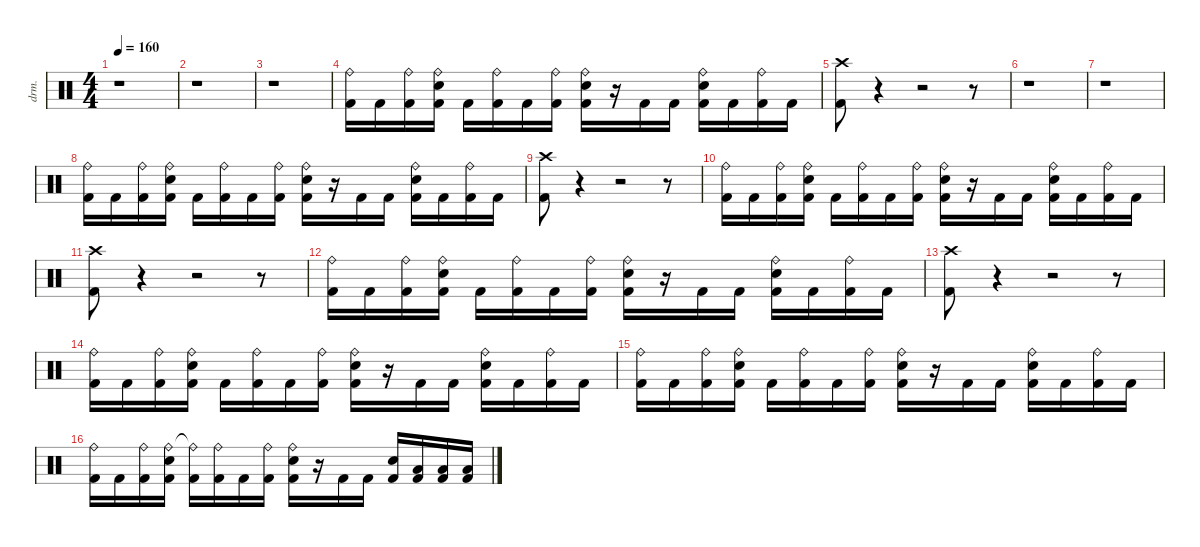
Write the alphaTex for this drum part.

\defaultSystemsLayout 4
\hideDynamics
\bracketExtendMode nobrackets
\track ("Menza" "drm.") {instrument percussion}
\staff {score}
\articulation defaults
\ts (4 4)
\beaming (8 2 2 2 2)
\tempo 160
\clef neutral
\ks c
r.1{dy f} |
r.1 |
r.1 |
("Ride (bell)" "Kick (hit) 2").16 "Kick (hit) 2".16 ("Ride (bell)" "Kick (hit) 2").16 ("Ride (bell)" "Snare (hit) 2" "Kick (hit) 2").16 "Kick (hit) 2".16 ("Ride (bell)" "Kick (hit) 2").16 "Kick (hit) 2".16 ("Ride (bell)" "Kick (hit) 2").16 ("Ride (bell)" "Snare (hit) 2" "Kick (hit) 2").16 r.16 "Kick (hit) 2".16 "Kick (hit) 2".16 ("Ride (bell)" "Snare (hit) 2" "Kick (hit) 2").16 "Kick (hit) 2".16 ("Ride (bell)" "Kick (hit) 2").16 "Kick (hit) 2".16 |
("Crash high (hit)" "Kick (hit) 2").8 r.4 r.2 r.8 |
r.1 |
r.1 |
("Ride (bell)" "Kick (hit) 2").16 "Kick (hit) 2".16 ("Ride (bell)" "Kick (hit) 2").16 ("Ride (bell)" "Snare (hit) 2" "Kick (hit) 2").16 "Kick (hit) 2".16 ("Ride (bell)" "Kick (hit) 2").16 "Kick (hit) 2".16 ("Ride (bell)" "Kick (hit) 2").16 ("Ride (bell)" "Snare (hit) 2" "Kick (hit) 2").16 r.16 "Kick (hit) 2".16 "Kick (hit) 2".16 ("Ride (bell)" "Snare (hit) 2" "Kick (hit) 2").16 "Kick (hit) 2".16 ("Ride (bell)" "Kick (hit) 2").16 "Kick (hit) 2".16 |
("Crash high (hit)" "Kick (hit) 2").8 r.4 r.2 r.8 |
("Ride (bell)" "Kick (hit) 2").16 "Kick (hit) 2".16 ("Ride (bell)" "Kick (hit) 2").16 ("Ride (bell)" "Snare (hit) 2" "Kick (hit) 2").16 "Kick (hit) 2".16 ("Ride (bell)" "Kick (hit) 2").16 "Kick (hit) 2".16 ("Ride (bell)" "Kick (hit) 2").16 ("Ride (bell)" "Snare (hit) 2" "Kick (hit) 2").16 r.16 "Kick (hit) 2".16 "Kick (hit) 2".16 ("Ride (bell)" "Snare (hit) 2" "Kick (hit) 2").16 "Kick (hit) 2".16 ("Ride (bell)" "Kick (hit) 2").16 "Kick (hit) 2".16 |
("Crash high (hit)" "Kick (hit) 2").8 r.4 r.2 r.8 |
("Ride (bell)" "Kick (hit) 2").16 "Kick (hit) 2".16 ("Ride (bell)" "Kick (hit) 2").16 ("Ride (bell)" "Snare (hit) 2" "Kick (hit) 2").16 "Kick (hit) 2".16 ("Ride (bell)" "Kick (hit) 2").16 "Kick (hit) 2".16 ("Ride (bell)" "Kick (hit) 2").16 ("Ride (bell)" "Snare (hit) 2" "Kick (hit) 2").16 r.16 "Kick (hit) 2".16 "Kick (hit) 2".16 ("Ride (bell)" "Snare (hit) 2" "Kick (hit) 2").16 "Kick (hit) 2".16 ("Ride (bell)" "Kick (hit) 2").16 "Kick (hit) 2".16 |
("Crash high (hit)" "Kick (hit) 2").8 r.4 r.2 r.8 |
("Ride (bell)" "Kick (hit) 2").16 "Kick (hit) 2".16 ("Ride (bell)" "Kick (hit) 2").16 ("Ride (bell)" "Snare (hit) 2" "Kick (hit) 2").16 "Kick (hit) 2".16 ("Ride (bell)" "Kick (hit) 2").16 "Kick (hit) 2".16 ("Ride (bell)" "Kick (hit) 2").16 ("Ride (bell)" "Snare (hit) 2" "Kick (hit) 2").16 r.16 "Kick (hit) 2".16 "Kick (hit) 2".16 ("Ride (bell)" "Snare (hit) 2" "Kick (hit) 2").16 "Kick (hit) 2".16 ("Ride (bell)" "Kick (hit) 2").16 "Kick (hit) 2".16 |
("Ride (bell)" "Kick (hit) 2").16 "Kick (hit) 2".16 ("Ride (bell)" "Kick (hit) 2").16 ("Ride (bell)" "Snare (hit) 2" "Kick (hit) 2").16 "Kick (hit) 2".16 ("Ride (bell)" "Kick (hit) 2").16 "Kick (hit) 2".16 ("Ride (bell)" "Kick (hit) 2").16 ("Ride (bell)" "Snare (hit) 2" "Kick (hit) 2").16 r.16 "Kick (hit) 2".16 "Kick (hit) 2".16 ("Ride (bell)" "Snare (hit) 2" "Kick (hit) 2").16 "Kick (hit) 2".16 ("Ride (bell)" "Kick (hit) 2").16 "Kick (hit) 2".16 |
("Ride (bell)" "Kick (hit) 2").16 "Kick (hit) 2".16 ("Ride (bell)" "Kick (hit) 2").16 ("Ride (bell)" "Snare (hit) 2" "Kick (hit) 2").16 ("Ride (bell)"{t} "Kick (hit) 2").16 ("Ride (bell)" "Kick (hit) 2").16 "Kick (hit) 2".16 ("Ride (bell)" "Kick (hit) 2").16 ("Ride (bell)" "Snare (hit) 2" "Kick (hit) 2").16 r.16 "Kick (hit) 2".16 "Kick (hit) 2".16 ("Snare (hit) 2" "Kick (hit) 2").16 ("Low Tom (hit)" "Kick (hit) 2").16 ("Low Tom (hit)" "Kick (hit) 2").16 ("Low Tom (hit)" "Kick (hit) 2").16
